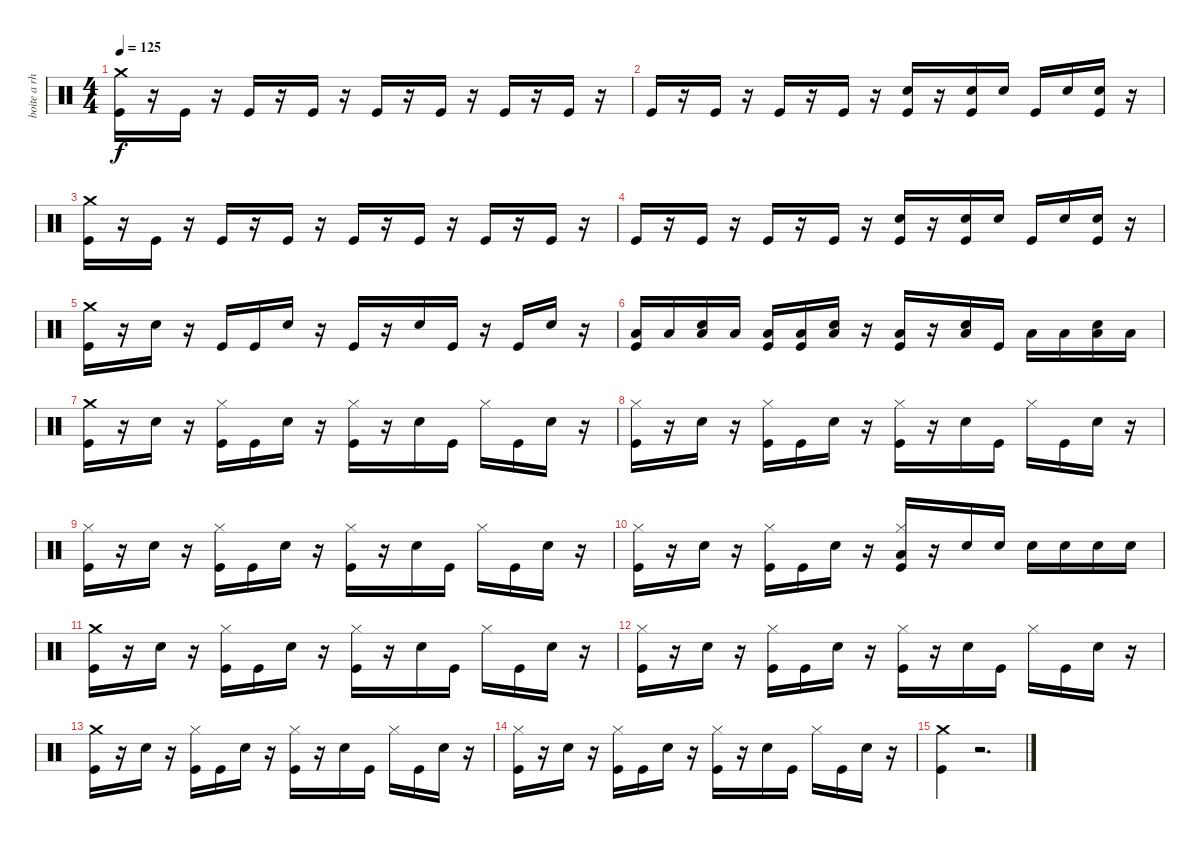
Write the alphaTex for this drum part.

\track ("boite a rhytme ( jean-Francois )" "boite a rh") {instrument percussion}
\staff {score}
\articulation defaults
\ts (4 4)
\tempo 125
\clef neutral
\ks c
("Crash medium (hit)" "Kick (hit)").16{dy f} r.16 "Kick (hit)".16 r.16 "Kick (hit)".16 r.16 "Kick (hit)".16 r.16 "Kick (hit)".16 r.16 "Kick (hit)".16 r.16 "Kick (hit)".16 r.16 "Kick (hit)".16 r.16 |
"Kick (hit)".16 r.16 "Kick (hit)".16 r.16 "Kick (hit)".16 r.16 "Kick (hit)".16 r.16 ("Snare (hit) 2" "Kick (hit)").16 r.16 ("Snare (hit) 2" "Kick (hit)").16 "Snare (hit) 2".16 "Kick (hit)".16 "Snare (hit) 2".16 ("Snare (hit) 2" "Kick (hit)").16 r.16 |
("Crash medium (hit)" "Kick (hit)").16 r.16 "Kick (hit)".16 r.16 "Kick (hit)".16 r.16 "Kick (hit)".16 r.16 "Kick (hit)".16 r.16 "Kick (hit)".16 r.16 "Kick (hit)".16 r.16 "Kick (hit)".16 r.16 |
"Kick (hit)".16 r.16 "Kick (hit)".16 r.16 "Kick (hit)".16 r.16 "Kick (hit)".16 r.16 ("Snare (hit) 2" "Kick (hit)").16 r.16 ("Snare (hit) 2" "Kick (hit)").16 "Snare (hit) 2".16 "Kick (hit)".16 "Snare (hit) 2".16 ("Snare (hit) 2" "Kick (hit)").16 r.16 |
("Crash medium (hit)" "Kick (hit)").16 r.16 "Snare (hit) 2".16 r.16 "Kick (hit)".16 "Kick (hit)".16 "Snare (hit) 2".16 r.16 "Kick (hit)".16 r.16 "Snare (hit) 2".16 "Kick (hit)".16 r.16 "Kick (hit)".16 "Snare (hit) 2".16 r.16 |
("Low Tom (hit)" "Kick (hit)").16 "Low Tom (hit)".16 ("Low Tom (hit)" "Snare (hit) 2").16 "Low Tom (hit)".16 ("Low Tom (hit)" "Kick (hit)").16 ("Low Tom (hit)" "Kick (hit)").16 ("Low Tom (hit)" "Snare (hit) 2").16 r.16 ("Low Tom (hit)" "Kick (hit)").16 r.16 ("Low Tom (hit)" "Snare (hit) 2").16 "Kick (hit)".16 "Low Tom (hit)".16 "Low Tom (hit)".16 ("Low Tom (hit)" "Snare (hit) 2").16 "Low Tom (hit)".16 |
("Crash medium (hit)" "Kick (hit)").16 r.16 "Snare (hit) 2".16 r.16 ("Hi-Hat (closed)" "Kick (hit)").16 "Kick (hit)".16 "Snare (hit) 2".16 r.16 ("Hi-Hat (closed)" "Kick (hit)").16 r.16 "Snare (hit) 2".16 "Kick (hit)".16 "Hi-Hat (closed)".16 "Kick (hit)".16 "Snare (hit) 2".16 r.16 |
("Hi-Hat (closed)" "Kick (hit)").16 r.16 "Snare (hit) 2".16 r.16 ("Hi-Hat (closed)" "Kick (hit)").16 "Kick (hit)".16 "Snare (hit) 2".16 r.16 ("Hi-Hat (closed)" "Kick (hit)").16 r.16 "Snare (hit) 2".16 "Kick (hit)".16 "Hi-Hat (closed)".16 "Kick (hit)".16 "Snare (hit) 2".16 r.16 |
("Hi-Hat (closed)" "Kick (hit)").16 r.16 "Snare (hit) 2".16 r.16 ("Hi-Hat (closed)" "Kick (hit)").16 "Kick (hit)".16 "Snare (hit) 2".16 r.16 ("Hi-Hat (closed)" "Kick (hit)").16 r.16 "Snare (hit) 2".16 "Kick (hit)".16 "Hi-Hat (closed)".16 "Kick (hit)".16 "Snare (hit) 2".16 r.16 |
("Hi-Hat (closed)" "Kick (hit)").16 r.16 "Snare (hit) 2".16 r.16 ("Hi-Hat (closed)" "Kick (hit)").16 "Kick (hit)".16 "Snare (hit) 2".16 r.16 ("Hi-Hat (closed)" "Low Floor Tom (hit)" "Kick (hit)").16 r.16 "Snare (hit) 2".16 "Snare (hit) 2".16 "Snare (hit) 2".16 "Snare (hit) 2".16 "Snare (hit) 2".16 "Snare (hit) 2".16 |
("Crash medium (hit)" "Kick (hit)").16 r.16 "Snare (hit) 2".16 r.16 ("Hi-Hat (closed)" "Kick (hit)").16 "Kick (hit)".16 "Snare (hit) 2".16 r.16 ("Hi-Hat (closed)" "Kick (hit)").16 r.16 "Snare (hit) 2".16 "Kick (hit)".16 "Hi-Hat (closed)".16 "Kick (hit)".16 "Snare (hit) 2".16 r.16 |
("Hi-Hat (closed)" "Kick (hit)").16 r.16 "Snare (hit) 2".16 r.16 ("Hi-Hat (closed)" "Kick (hit)").16 "Kick (hit)".16 "Snare (hit) 2".16 r.16 ("Hi-Hat (closed)" "Kick (hit)").16 r.16 "Snare (hit) 2".16 "Kick (hit)".16 "Hi-Hat (closed)".16 "Kick (hit)".16 "Snare (hit) 2".16 r.16 |
("Crash medium (hit)" "Kick (hit)").16 r.16 "Snare (hit) 2".16 r.16 ("Hi-Hat (closed)" "Kick (hit)").16 "Kick (hit)".16 "Snare (hit) 2".16 r.16 ("Hi-Hat (closed)" "Kick (hit)").16 r.16 "Snare (hit) 2".16 "Kick (hit)".16 "Hi-Hat (closed)".16 "Kick (hit)".16 "Snare (hit) 2".16 r.16 |
("Hi-Hat (closed)" "Kick (hit)").16 r.16 "Snare (hit) 2".16 r.16 ("Hi-Hat (closed)" "Kick (hit)").16 "Kick (hit)".16 "Snare (hit) 2".16 r.16 ("Hi-Hat (closed)" "Kick (hit)").16 r.16 "Snare (hit) 2".16 "Kick (hit)".16 "Hi-Hat (closed)".16 "Kick (hit)".16 "Snare (hit) 2".16 r.16 |
("Crash medium (hit)" "Kick (hit)").4 r.2{d}
